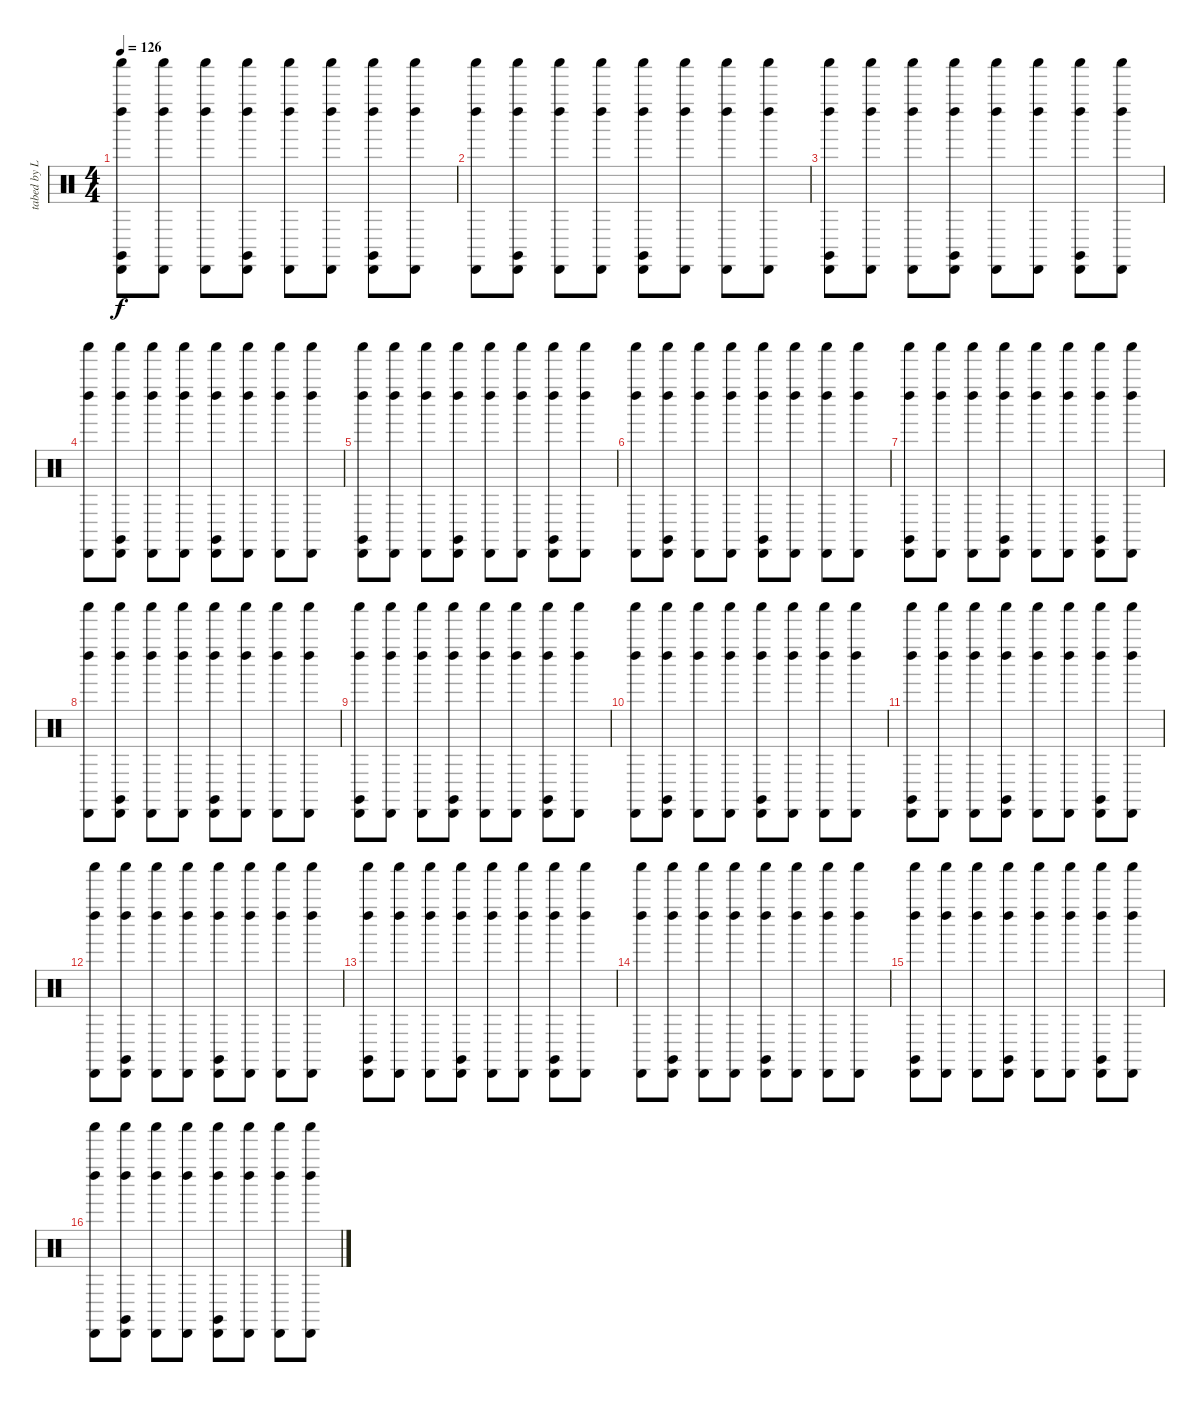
\track ("tabed by Leonid" "tabed by L") {instrument percussion}
\staff {score}
\articulation defaults
\ts (4 4)
\tempo 126
\clef neutral
\ks c
("Shaker (hit)" "Cabasa (hit)" "Left Maraca (hit)" "Claves (hit)").8{dy f} ("Shaker (hit)" "Cabasa (hit)" "Left Maraca (hit)").8 ("Shaker (hit)" "Cabasa (hit)" "Left Maraca (hit)").8 ("Shaker (hit)" "Cabasa (hit)" "Left Maraca (hit)" "Claves (hit)").8 ("Shaker (hit)" "Cabasa (hit)" "Left Maraca (hit)").8 ("Shaker (hit)" "Cabasa (hit)" "Left Maraca (hit)").8 ("Shaker (hit)" "Cabasa (hit)" "Left Maraca (hit)" "Claves (hit)").8 ("Shaker (hit)" "Cabasa (hit)" "Left Maraca (hit)").8 |
("Shaker (hit)" "Cabasa (hit)" "Left Maraca (hit)").8 ("Shaker (hit)" "Cabasa (hit)" "Left Maraca (hit)" "Claves (hit)").8 ("Shaker (hit)" "Cabasa (hit)" "Left Maraca (hit)").8 ("Shaker (hit)" "Cabasa (hit)" "Left Maraca (hit)").8 ("Shaker (hit)" "Cabasa (hit)" "Left Maraca (hit)" "Claves (hit)").8 ("Shaker (hit)" "Cabasa (hit)" "Left Maraca (hit)").8 ("Shaker (hit)" "Cabasa (hit)" "Left Maraca (hit)").8 ("Shaker (hit)" "Cabasa (hit)" "Left Maraca (hit)").8 |
("Shaker (hit)" "Cabasa (hit)" "Left Maraca (hit)" "Claves (hit)").8 ("Shaker (hit)" "Cabasa (hit)" "Left Maraca (hit)").8 ("Shaker (hit)" "Cabasa (hit)" "Left Maraca (hit)").8 ("Shaker (hit)" "Cabasa (hit)" "Left Maraca (hit)" "Claves (hit)").8 ("Shaker (hit)" "Cabasa (hit)" "Left Maraca (hit)").8 ("Shaker (hit)" "Cabasa (hit)" "Left Maraca (hit)").8 ("Shaker (hit)" "Cabasa (hit)" "Left Maraca (hit)" "Claves (hit)").8 ("Shaker (hit)" "Cabasa (hit)" "Left Maraca (hit)").8 |
("Left Maraca (hit)" "Cabasa (hit)" "Shaker (hit)").8 ("Left Maraca (hit)" "Cabasa (hit)" "Shaker (hit)" "Claves (hit)").8 ("Left Maraca (hit)" "Cabasa (hit)" "Shaker (hit)").8 ("Left Maraca (hit)" "Cabasa (hit)" "Shaker (hit)").8 ("Left Maraca (hit)" "Cabasa (hit)" "Shaker (hit)" "Claves (hit)").8 ("Left Maraca (hit)" "Cabasa (hit)" "Shaker (hit)").8 ("Left Maraca (hit)" "Cabasa (hit)" "Shaker (hit)").8 ("Left Maraca (hit)" "Cabasa (hit)" "Shaker (hit)").8 |
("Left Maraca (hit)" "Cabasa (hit)" "Shaker (hit)" "Claves (hit)").8 ("Left Maraca (hit)" "Cabasa (hit)" "Shaker (hit)").8 ("Left Maraca (hit)" "Cabasa (hit)" "Shaker (hit)").8 ("Left Maraca (hit)" "Cabasa (hit)" "Shaker (hit)" "Claves (hit)").8 ("Left Maraca (hit)" "Cabasa (hit)" "Shaker (hit)").8 ("Left Maraca (hit)" "Cabasa (hit)" "Shaker (hit)").8 ("Left Maraca (hit)" "Cabasa (hit)" "Shaker (hit)" "Claves (hit)").8 ("Left Maraca (hit)" "Cabasa (hit)" "Shaker (hit)").8 |
("Shaker (hit)" "Cabasa (hit)" "Left Maraca (hit)").8 ("Shaker (hit)" "Cabasa (hit)" "Left Maraca (hit)" "Claves (hit)").8 ("Shaker (hit)" "Cabasa (hit)" "Left Maraca (hit)").8 ("Shaker (hit)" "Cabasa (hit)" "Left Maraca (hit)").8 ("Shaker (hit)" "Cabasa (hit)" "Left Maraca (hit)" "Claves (hit)").8 ("Shaker (hit)" "Cabasa (hit)" "Left Maraca (hit)").8 ("Shaker (hit)" "Cabasa (hit)" "Left Maraca (hit)").8 ("Shaker (hit)" "Cabasa (hit)" "Left Maraca (hit)").8 |
("Shaker (hit)" "Cabasa (hit)" "Left Maraca (hit)" "Claves (hit)").8 ("Shaker (hit)" "Cabasa (hit)" "Left Maraca (hit)").8 ("Shaker (hit)" "Cabasa (hit)" "Left Maraca (hit)").8 ("Shaker (hit)" "Cabasa (hit)" "Left Maraca (hit)" "Claves (hit)").8 ("Shaker (hit)" "Cabasa (hit)" "Left Maraca (hit)").8 ("Shaker (hit)" "Cabasa (hit)" "Left Maraca (hit)").8 ("Shaker (hit)" "Cabasa (hit)" "Left Maraca (hit)" "Claves (hit)").8 ("Shaker (hit)" "Cabasa (hit)" "Left Maraca (hit)").8 |
("Shaker (hit)" "Left Maraca (hit)" "Cabasa (hit)").8 ("Shaker (hit)" "Left Maraca (hit)" "Cabasa (hit)" "Claves (hit)").8 ("Shaker (hit)" "Left Maraca (hit)" "Cabasa (hit)").8 ("Shaker (hit)" "Left Maraca (hit)" "Cabasa (hit)").8 ("Shaker (hit)" "Left Maraca (hit)" "Cabasa (hit)" "Claves (hit)").8 ("Shaker (hit)" "Left Maraca (hit)" "Cabasa (hit)").8 ("Shaker (hit)" "Left Maraca (hit)" "Cabasa (hit)").8 ("Shaker (hit)" "Left Maraca (hit)" "Cabasa (hit)").8 |
("Shaker (hit)" "Left Maraca (hit)" "Cabasa (hit)" "Claves (hit)").8 ("Shaker (hit)" "Left Maraca (hit)" "Cabasa (hit)").8 ("Shaker (hit)" "Left Maraca (hit)" "Cabasa (hit)").8 ("Shaker (hit)" "Left Maraca (hit)" "Cabasa (hit)" "Claves (hit)").8 ("Shaker (hit)" "Left Maraca (hit)" "Cabasa (hit)").8 ("Shaker (hit)" "Left Maraca (hit)" "Cabasa (hit)").8 ("Shaker (hit)" "Left Maraca (hit)" "Cabasa (hit)" "Claves (hit)").8 ("Shaker (hit)" "Left Maraca (hit)" "Cabasa (hit)").8 |
("Shaker (hit)" "Left Maraca (hit)" "Cabasa (hit)").8 ("Shaker (hit)" "Left Maraca (hit)" "Cabasa (hit)" "Claves (hit)").8 ("Shaker (hit)" "Left Maraca (hit)" "Cabasa (hit)").8 ("Shaker (hit)" "Left Maraca (hit)" "Cabasa (hit)").8 ("Shaker (hit)" "Left Maraca (hit)" "Cabasa (hit)" "Claves (hit)").8 ("Shaker (hit)" "Left Maraca (hit)" "Cabasa (hit)").8 ("Shaker (hit)" "Left Maraca (hit)" "Cabasa (hit)").8 ("Shaker (hit)" "Left Maraca (hit)" "Cabasa (hit)").8 |
("Shaker (hit)" "Left Maraca (hit)" "Cabasa (hit)" "Claves (hit)").8 ("Shaker (hit)" "Left Maraca (hit)" "Cabasa (hit)").8 ("Shaker (hit)" "Left Maraca (hit)" "Cabasa (hit)").8 ("Shaker (hit)" "Left Maraca (hit)" "Cabasa (hit)" "Claves (hit)").8 ("Shaker (hit)" "Left Maraca (hit)" "Cabasa (hit)").8 ("Shaker (hit)" "Left Maraca (hit)" "Cabasa (hit)").8 ("Shaker (hit)" "Left Maraca (hit)" "Cabasa (hit)" "Claves (hit)").8 ("Shaker (hit)" "Left Maraca (hit)" "Cabasa (hit)").8 |
("Left Maraca (hit)" "Cabasa (hit)" "Shaker (hit)").8 ("Left Maraca (hit)" "Cabasa (hit)" "Shaker (hit)" "Claves (hit)").8 ("Left Maraca (hit)" "Cabasa (hit)" "Shaker (hit)").8 ("Left Maraca (hit)" "Cabasa (hit)" "Shaker (hit)").8 ("Left Maraca (hit)" "Cabasa (hit)" "Shaker (hit)" "Claves (hit)").8 ("Left Maraca (hit)" "Cabasa (hit)" "Shaker (hit)").8 ("Left Maraca (hit)" "Cabasa (hit)" "Shaker (hit)").8 ("Left Maraca (hit)" "Cabasa (hit)" "Shaker (hit)").8 |
("Left Maraca (hit)" "Cabasa (hit)" "Shaker (hit)" "Claves (hit)").8 ("Left Maraca (hit)" "Cabasa (hit)" "Shaker (hit)").8 ("Left Maraca (hit)" "Cabasa (hit)" "Shaker (hit)").8 ("Left Maraca (hit)" "Cabasa (hit)" "Shaker (hit)" "Claves (hit)").8 ("Left Maraca (hit)" "Cabasa (hit)" "Shaker (hit)").8 ("Left Maraca (hit)" "Cabasa (hit)" "Shaker (hit)").8 ("Left Maraca (hit)" "Cabasa (hit)" "Shaker (hit)" "Claves (hit)").8 ("Left Maraca (hit)" "Cabasa (hit)" "Shaker (hit)").8 |
("Cabasa (hit)" "Shaker (hit)" "Left Maraca (hit)").8 ("Cabasa (hit)" "Shaker (hit)" "Left Maraca (hit)" "Claves (hit)").8 ("Cabasa (hit)" "Shaker (hit)" "Left Maraca (hit)").8 ("Cabasa (hit)" "Shaker (hit)" "Left Maraca (hit)").8 ("Cabasa (hit)" "Shaker (hit)" "Left Maraca (hit)" "Claves (hit)").8 ("Cabasa (hit)" "Shaker (hit)" "Left Maraca (hit)").8 ("Cabasa (hit)" "Shaker (hit)" "Left Maraca (hit)").8 ("Cabasa (hit)" "Shaker (hit)" "Left Maraca (hit)").8 |
("Cabasa (hit)" "Shaker (hit)" "Left Maraca (hit)" "Claves (hit)").8 ("Cabasa (hit)" "Shaker (hit)" "Left Maraca (hit)").8 ("Cabasa (hit)" "Shaker (hit)" "Left Maraca (hit)").8 ("Cabasa (hit)" "Shaker (hit)" "Left Maraca (hit)" "Claves (hit)").8 ("Cabasa (hit)" "Shaker (hit)" "Left Maraca (hit)").8 ("Cabasa (hit)" "Shaker (hit)" "Left Maraca (hit)").8 ("Cabasa (hit)" "Shaker (hit)" "Left Maraca (hit)" "Claves (hit)").8 ("Cabasa (hit)" "Shaker (hit)" "Left Maraca (hit)").8 |
("Left Maraca (hit)" "Shaker (hit)" "Cabasa (hit)").8 ("Left Maraca (hit)" "Shaker (hit)" "Cabasa (hit)" "Claves (hit)").8 ("Left Maraca (hit)" "Shaker (hit)" "Cabasa (hit)").8 ("Left Maraca (hit)" "Shaker (hit)" "Cabasa (hit)").8 ("Left Maraca (hit)" "Shaker (hit)" "Cabasa (hit)" "Claves (hit)").8 ("Left Maraca (hit)" "Shaker (hit)" "Cabasa (hit)").8 ("Left Maraca (hit)" "Shaker (hit)" "Cabasa (hit)").8 ("Left Maraca (hit)" "Shaker (hit)" "Cabasa (hit)").8
